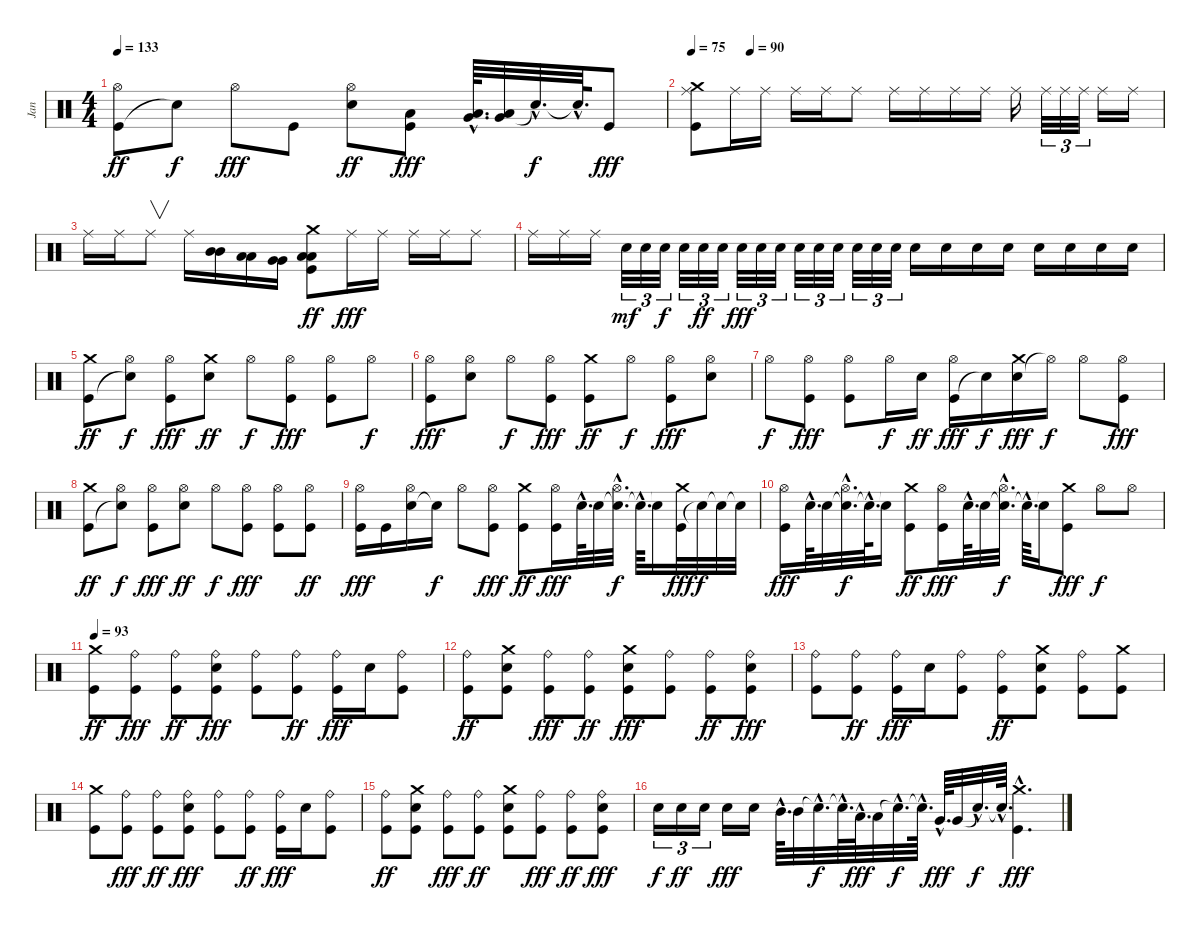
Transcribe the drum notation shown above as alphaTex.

\track ("Jan" "Jan") {instrument percussion}
\staff {score}
\articulation defaults
\ts (4 4)
\tempo 133
\clef neutral
\ks c
("Kick (hit)" "Hi-Hat (open)").8{dy ff} "Snare (hit)"{t}.8{dy f} "Hi-Hat (open)".8{dy fff} "Kick (hit)".8 ("Snare (hit) 2" "Hi-Hat (open)").8{dy ff} ("Kick (hit)" "Low Tom (hit)").8{dy fff} ("Low Tom (hit)"{hac} "Very Low Tom (hit)"{hac}).64{d} ("Very Low Tom (hit)" "Low Floor Tom (hit)").32 "Snare (hit)"{hac t}.32{d dy f} "Snare (hit)"{hac t}.64{d} "Kick (hit)".8{dy fff} |
\tempo 75
\tempo (90 0.125)
("Kick (hit)" "Ride (middle)" "Crash medium (hit)").8 "Ride (middle)".16 "Ride (middle)".16 "Ride (middle)".16 "Ride (middle)".16 "Ride (middle)".8 "Ride (middle)".16 "Ride (middle)".16 "Ride (middle)".16 "Ride (middle)".16 "Ride (middle)".16 "Ride (middle)".32{tu (3 2)} "Ride (middle)".32{tu (3 2)} "Ride (middle)".32{tu (3 2)} "Ride (middle)".16 "Ride (middle)".16 |
"Ride (middle)".16 "Ride (middle)".16 "Ride (middle)".8{v} "Ride (middle)".16 ("Mid Tom (hit)" "Mid Tom (hit)").16 ("Low Tom (hit)" "Low Tom (hit)").16 ("Very Low Tom (hit)" "Very Low Tom (hit)").16 ("Kick (hit)" "Low Floor Tom (hit)" "Low Floor Tom (hit)" "Crash medium (hit)").8{dy ff} "Ride (middle)".16{dy fff} "Ride (middle)".16 "Ride (middle)".16 "Ride (middle)".16 "Ride (middle)".8 |
"Ride (middle)".16 "Ride (middle)".16 "Ride (middle)".16 "Snare (hit) 2".32{tu (3 2) dy mf} "Snare (hit) 2".32{tu (3 2)} "Snare (hit) 2".32{tu (3 2) dy f} "Snare (hit) 2".32{tu (3 2)} "Snare (hit) 2".32{tu (3 2) dy ff} "Snare (hit) 2".32{tu (3 2)} "Snare (hit) 2".32{tu (3 2) dy fff} "Snare (hit) 2".32{tu (3 2)} "Snare (hit) 2".32{tu (3 2)} "Snare (hit) 2".32{tu (3 2)} "Snare (hit) 2".32{tu (3 2)} "Snare (hit) 2".32{tu (3 2)} "Snare (hit) 2".32{tu (3 2)} "Snare (hit) 2".32{tu (3 2)} "Snare (hit) 2".32{tu (3 2)} "Snare (hit) 2".16 "Snare (hit) 2".16 "Snare (hit) 2".16 "Snare (hit) 2".16 "Snare (hit) 2".16 "Snare (hit) 2".16 "Snare (hit) 2".16 "Snare (hit) 2".16 |
("Kick (hit)" "Crash medium (hit)").8{dy ff} ("Snare (hit)"{t} "Hi-Hat (open)").8{dy f} ("Kick (hit)" "Hi-Hat (open)").8{dy fff} ("Snare (hit) 2" "Crash medium (hit)").8{dy ff} "Hi-Hat (open)".8{dy f} ("Kick (hit)" "Hi-Hat (open)").8{dy fff} ("Kick (hit)" "Hi-Hat (open)").8 "Hi-Hat (open)".8{dy f} |
("Kick (hit)" "Hi-Hat (open)").8{dy fff} ("Snare (hit) 2" "Hi-Hat (open)").8 "Hi-Hat (open)".8{dy f} ("Kick (hit)" "Hi-Hat (open)").8{dy fff} ("Kick (hit)" "Crash medium (hit)").8{dy ff} "Hi-Hat (open)".8{dy f} ("Kick (hit)" "Hi-Hat (open)").8{dy fff} ("Snare (hit) 2" "Hi-Hat (open)").8 |
"Hi-Hat (open)".8{dy f} ("Kick (hit)" "Hi-Hat (open)").8{dy fff} ("Kick (hit)" "Hi-Hat (open)").8 "Hi-Hat (open)".16{dy f} "Snare (hit) 2".16{dy ff} ("Kick (hit)" "Hi-Hat (open)").16{dy fff} "Snare (hit)"{t}.16{dy f} ("Snare (hit) 2" "Crash medium (hit)").16{dy fff} "Hi-Hat (open)"{t}.16{dy f} "Hi-Hat (open)".8 ("Kick (hit)" "Hi-Hat (open)").8{dy fff} |
("Kick (hit)" "Crash medium (hit)").8{dy ff} ("Snare (hit)"{t} "Hi-Hat (open)").8{dy f} ("Kick (hit)" "Hi-Hat (open)").8{dy fff} ("Snare (hit) 2" "Hi-Hat (open)").8{dy ff} "Hi-Hat (open)".8{dy f} ("Kick (hit)" "Hi-Hat (open)").8{dy fff} ("Kick (hit)" "Hi-Hat (open)").8 ("Kick (hit)" "Hi-Hat (open)").8{dy ff} |
("Kick (hit)" "Hi-Hat (open)").16{dy fff} "Kick (hit)".16 ("Snare (hit) 2" "Hi-Hat (open)").16 "Snare (hit)"{t}.16{dy f} "Hi-Hat (open)".8 ("Kick (hit)" "Hi-Hat (open)").8{dy fff} ("Kick (hit)" "Crash medium (hit)").8{dy ff} ("Kick (hit)" "Hi-Hat (open)").16{dy fff} "Snare (hit) 2"{hac}.64{d} "Snare (hit) 2".32 ("Snare (hit)"{hac t} "Hi-Hat (open)"{hac}).32{d dy f} "Snare (hit)"{hac t}.64{d} "Snare (hit)"{t}.16 ("Kick (hit)" "Crash medium (hit)").32{dy fff} "Snare (hit)"{t}.32{dy f} "Snare (hit)"{t}.32 "Snare (hit)"{t}.32 |
("Kick (hit)" "Hi-Hat (open)").16{dy fff} "Snare (hit) 2"{hac}.64{d} "Snare (hit) 2".32 ("Snare (hit)"{hac t} "Hi-Hat (open)"{hac}).32{d dy f} "Snare (hit)"{hac t}.64{d} "Snare (hit)"{t}.16 ("Kick (hit)" "Crash medium (hit)").8{dy ff} ("Kick (hit)" "Hi-Hat (open)").16{dy fff} "Snare (hit) 2"{hac}.64{d} "Snare (hit) 2".32 ("Snare (hit)"{hac t} "Hi-Hat (open)"{hac}).32{d dy f} "Snare (hit)"{hac t}.64{d} "Snare (hit)"{t}.16 ("Kick (hit)" "Crash medium (hit)").8{dy fff} "Hi-Hat (open)".8{dy f} "Hi-Hat (open)".8 |
\tempo 93
("Kick (hit)" "Crash medium (hit)").8{dy ff} ("Kick (hit)" "Ride (bell)").8{dy fff} ("Kick (hit)" "Ride (bell)").8{dy ff} ("Kick (hit)" "Snare (hit) 2" "Ride (bell)").8{dy fff} ("Kick (hit)" "Ride (bell)").8 ("Kick (hit)" "Ride (bell)").8{dy ff} ("Kick (hit)" "Ride (bell)").16{dy fff} "Snare (hit) 2".16 ("Kick (hit)" "Ride (bell)").8 |
("Kick (hit)" "Ride (bell)").8{dy ff} ("Kick (hit)" "Snare (hit) 2" "Crash medium (hit)").8 ("Kick (hit)" "Ride (bell)").8{dy fff} ("Kick (hit)" "Ride (bell)").8{dy ff} ("Kick (hit)" "Snare (hit) 2" "Crash medium (hit)").8{dy fff} ("Kick (hit)" "Ride (bell)").8 ("Kick (hit)" "Ride (bell)").8{dy ff} ("Kick (hit)" "Snare (hit) 2" "Ride (bell)").8{dy fff} |
("Kick (hit)" "Ride (bell)").8 ("Kick (hit)" "Ride (bell)").8{dy ff} ("Kick (hit)" "Ride (bell)").16{dy fff} "Snare (hit) 2".16 ("Kick (hit)" "Ride (bell)").8 ("Kick (hit)" "Ride (bell)").8{dy ff} ("Kick (hit)" "Snare (hit) 2" "Crash medium (hit)").8 ("Kick (hit)" "Ride (bell)").8 ("Kick (hit)" "Crash medium (hit)").8 |
("Kick (hit)" "Crash medium (hit)").8 ("Kick (hit)" "Ride (bell)").8{dy fff} ("Kick (hit)" "Ride (bell)").8{dy ff} ("Kick (hit)" "Snare (hit) 2" "Ride (bell)").8{dy fff} ("Kick (hit)" "Ride (bell)").8 ("Kick (hit)" "Ride (bell)").8{dy ff} ("Kick (hit)" "Ride (bell)").16{dy fff} "Snare (hit) 2".16 ("Kick (hit)" "Ride (bell)").8 |
("Kick (hit)" "Ride (bell)").8{dy ff} ("Kick (hit)" "Snare (hit) 2" "Crash medium (hit)").8 ("Kick (hit)" "Ride (bell)").8{dy fff} ("Kick (hit)" "Ride (bell)").8{dy ff} ("Kick (hit)" "Snare (hit) 2" "Crash medium (hit)").8 ("Kick (hit)" "Ride (bell)").8{dy fff} ("Kick (hit)" "Ride (bell)").8{dy ff} ("Kick (hit)" "Snare (hit) 2" "Ride (bell)").8{dy fff} |
"Snare (hit) 2".16{tu (3 2) dy f} "Snare (hit) 2".16{tu (3 2) dy ff} "Snare (hit) 2".16{tu (3 2)} "Snare (hit) 2".16{dy fff} "Snare (hit) 2".16 "Mid Tom (hit)"{hac}.64{d} "Mid Tom (hit)".32 "Snare (hit)"{hac t}.32{d dy f} "Snare (hit)"{hac t}.64{d} "Low Tom (hit)"{hac}.64{d dy fff} "Low Tom (hit)".32 "Snare (hit)"{hac t}.32{d dy f} "Snare (hit)"{hac t}.64{d} "Very Low Tom (hit)"{hac}.64{d dy fff} "Very Low Tom (hit)".32 "Snare (hit)"{hac t}.32{d dy f} "Snare (hit)"{hac t}.64{d} ("Kick (hit)"{hac} "Crash medium (hit)"{hac}).4{d dy fff}
